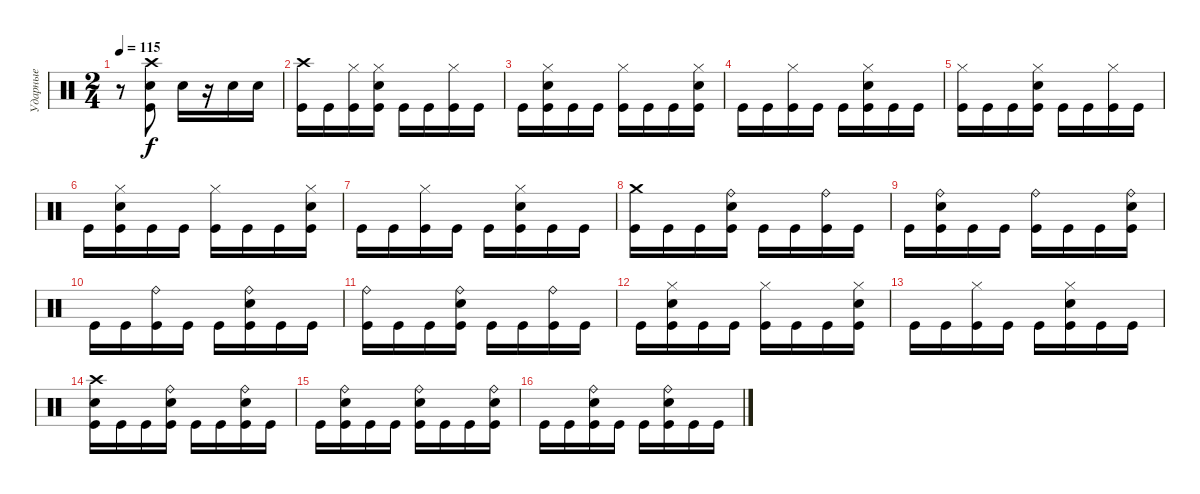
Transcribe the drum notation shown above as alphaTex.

\track ("Ударные" "Ударные") {instrument percussion}
\staff {score}
\articulation defaults
\ts (2 4)
\tempo 115
\clef neutral
\ks c
r.8{dy f} ("Crash high (hit)" "Electric Snare (hit)" "Kick (hit)").8 "Electric Snare (hit)".16 r.16 "Electric Snare (hit)".16 "Electric Snare (hit)".16 |
("Crash high (hit)" "Kick (hit)").16 "Kick (hit)".16 ("Hi-Hat (closed)" "Kick (hit)").16 ("Hi-Hat (closed)" "Electric Snare (hit)" "Kick (hit)").16 "Kick (hit)".16 "Kick (hit)".16 ("Hi-Hat (closed)" "Kick (hit)").16 "Kick (hit)".16 |
"Kick (hit)".16 ("Hi-Hat (closed)" "Electric Snare (hit)" "Kick (hit)").16 "Kick (hit)".16 "Kick (hit)".16 ("Hi-Hat (closed)" "Kick (hit)").16 "Kick (hit)".16 "Kick (hit)".16 ("Hi-Hat (closed)" "Electric Snare (hit)" "Kick (hit)").16 |
"Kick (hit)".16 "Kick (hit)".16 ("Hi-Hat (closed)" "Kick (hit)").16 "Kick (hit)".16 "Kick (hit)".16 ("Hi-Hat (closed)" "Electric Snare (hit)" "Kick (hit)").16 "Kick (hit)".16 "Kick (hit)".16 |
("Hi-Hat (closed)" "Kick (hit)").16 "Kick (hit)".16 "Kick (hit)".16 ("Hi-Hat (closed)" "Electric Snare (hit)" "Kick (hit)").16 "Kick (hit)".16 "Kick (hit)".16 ("Hi-Hat (closed)" "Kick (hit)").16 "Kick (hit)".16 |
"Kick (hit)".16 ("Hi-Hat (closed)" "Electric Snare (hit)" "Kick (hit)").16 "Kick (hit)".16 "Kick (hit)".16 ("Hi-Hat (closed)" "Kick (hit)").16 "Kick (hit)".16 "Kick (hit)".16 ("Hi-Hat (closed)" "Electric Snare (hit)" "Kick (hit)").16 |
"Kick (hit)".16 "Kick (hit)".16 ("Hi-Hat (closed)" "Kick (hit)").16 "Kick (hit)".16 "Kick (hit)".16 ("Hi-Hat (closed)" "Electric Snare (hit)" "Kick (hit)").16 "Kick (hit)".16 "Kick (hit)".16 |
("Crash medium (hit)" "Kick (hit)").16 "Kick (hit)".16 "Kick (hit)".16 ("Ride (bell)" "Electric Snare (hit)" "Kick (hit)").16 "Kick (hit)".16 "Kick (hit)".16 ("Ride (bell)" "Kick (hit)").16 "Kick (hit)".16 |
"Kick (hit)".16 ("Ride (bell)" "Electric Snare (hit)" "Kick (hit)").16 "Kick (hit)".16 "Kick (hit)".16 ("Ride (bell)" "Kick (hit)").16 "Kick (hit)".16 "Kick (hit)".16 ("Ride (bell)" "Electric Snare (hit)" "Kick (hit)").16 |
"Kick (hit)".16 "Kick (hit)".16 ("Ride (bell)" "Kick (hit)").16 "Kick (hit)".16 "Kick (hit)".16 ("Ride (bell)" "Electric Snare (hit)" "Kick (hit)").16 "Kick (hit)".16 "Kick (hit)".16 |
("Ride (bell)" "Kick (hit)").16 "Kick (hit)".16 "Kick (hit)".16 ("Ride (bell)" "Electric Snare (hit)" "Kick (hit)").16 "Kick (hit)".16 "Kick (hit)".16 ("Ride (bell)" "Kick (hit)").16 "Kick (hit)".16 |
"Kick (hit)".16 ("Hi-Hat (closed)" "Electric Snare (hit)" "Kick (hit)").16 "Kick (hit)".16 "Kick (hit)".16 ("Hi-Hat (closed)" "Kick (hit)").16 "Kick (hit)".16 "Kick (hit)".16 ("Hi-Hat (closed)" "Electric Snare (hit)" "Kick (hit)").16 |
"Kick (hit)".16 "Kick (hit)".16 ("Hi-Hat (closed)" "Kick (hit)").16 "Kick (hit)".16 "Kick (hit)".16 ("Hi-Hat (closed)" "Electric Snare (hit)" "Kick (hit)").16 "Kick (hit)".16 "Kick (hit)".16 |
("Crash high (hit)" "Electric Snare (hit)" "Kick (hit)").16 "Kick (hit)".16 "Kick (hit)".16 ("Ride (bell)" "Electric Snare (hit)" "Kick (hit)").16 "Kick (hit)".16 "Kick (hit)".16 ("Ride (bell)" "Electric Snare (hit)" "Kick (hit)").16 "Kick (hit)".16 |
"Kick (hit)".16 ("Ride (bell)" "Electric Snare (hit)" "Kick (hit)").16 "Kick (hit)".16 "Kick (hit)".16 ("Ride (bell)" "Electric Snare (hit)" "Kick (hit)").16 "Kick (hit)".16 "Kick (hit)".16 ("Ride (bell)" "Electric Snare (hit)" "Kick (hit)").16 |
"Kick (hit)".16 "Kick (hit)".16 ("Ride (bell)" "Electric Snare (hit)" "Kick (hit)").16 "Kick (hit)".16 "Kick (hit)".16 ("Ride (bell)" "Electric Snare (hit)" "Kick (hit)").16 "Kick (hit)".16 "Kick (hit)".16
